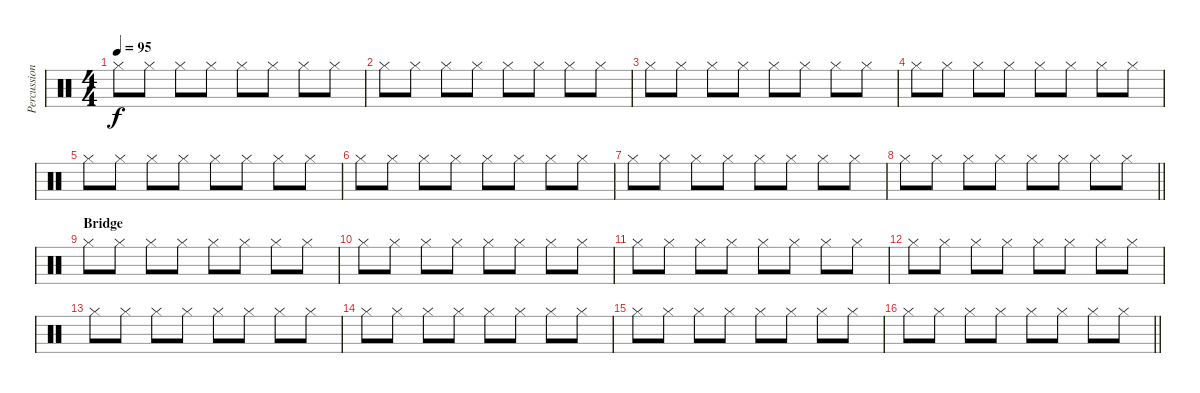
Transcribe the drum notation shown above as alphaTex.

\track ("Percussioni" "Percussion") {instrument percussion}
\staff {score}
\articulation defaults
\ts (4 4)
\tempo 95
\clef neutral
\ks c "Hi-Hat (closed)".8{dy f} "Hi-Hat (closed)".8 "Hi-Hat (closed)".8 "Hi-Hat (closed)".8 "Hi-Hat (closed)".8 "Hi-Hat (closed)".8 "Hi-Hat (closed)".8 "Hi-Hat (closed)".8
|
"Hi-Hat (closed)".8 "Hi-Hat (closed)".8 "Hi-Hat (closed)".8 "Hi-Hat (closed)".8 "Hi-Hat (closed)".8 "Hi-Hat (closed)".8 "Hi-Hat (closed)".8 "Hi-Hat (closed)".8 |
"Hi-Hat (closed)".8 "Hi-Hat (closed)".8 "Hi-Hat (closed)".8 "Hi-Hat (closed)".8 "Hi-Hat (closed)".8 "Hi-Hat (closed)".8 "Hi-Hat (closed)".8 "Hi-Hat (closed)".8 |
"Hi-Hat (closed)".8 "Hi-Hat (closed)".8 "Hi-Hat (closed)".8 "Hi-Hat (closed)".8 "Hi-Hat (closed)".8 "Hi-Hat (closed)".8 "Hi-Hat (closed)".8 "Hi-Hat (closed)".8 |
"Hi-Hat (closed)".8 "Hi-Hat (closed)".8 "Hi-Hat (closed)".8 "Hi-Hat (closed)".8 "Hi-Hat (closed)".8 "Hi-Hat (closed)".8 "Hi-Hat (closed)".8 "Hi-Hat (closed)".8 |
"Hi-Hat (closed)".8 "Hi-Hat (closed)".8 "Hi-Hat (closed)".8 "Hi-Hat (closed)".8 "Hi-Hat (closed)".8 "Hi-Hat (closed)".8 "Hi-Hat (closed)".8 "Hi-Hat (closed)".8 |
"Hi-Hat (closed)".8 "Hi-Hat (closed)".8 "Hi-Hat (closed)".8 "Hi-Hat (closed)".8 "Hi-Hat (closed)".8 "Hi-Hat (closed)".8 "Hi-Hat (closed)".8 "Hi-Hat (closed)".8 |
\barLineRight lightlight "Hi-Hat (closed)".8 "Hi-Hat (closed)".8 "Hi-Hat (closed)".8 "Hi-Hat (closed)".8 "Hi-Hat (closed)".8 "Hi-Hat (closed)".8 "Hi-Hat (closed)".8 "Hi-Hat (closed)".8
|
\section ("" "Bridge")
"Hi-Hat (closed)".8 "Hi-Hat (closed)".8 "Hi-Hat (closed)".8 "Hi-Hat (closed)".8 "Hi-Hat (closed)".8 "Hi-Hat (closed)".8 "Hi-Hat (closed)".8 "Hi-Hat (closed)".8 |
"Hi-Hat (closed)".8 "Hi-Hat (closed)".8 "Hi-Hat (closed)".8 "Hi-Hat (closed)".8 "Hi-Hat (closed)".8 "Hi-Hat (closed)".8 "Hi-Hat (closed)".8 "Hi-Hat (closed)".8 |
"Hi-Hat (closed)".8 "Hi-Hat (closed)".8 "Hi-Hat (closed)".8 "Hi-Hat (closed)".8 "Hi-Hat (closed)".8 "Hi-Hat (closed)".8 "Hi-Hat (closed)".8 "Hi-Hat (closed)".8 |
"Hi-Hat (closed)".8 "Hi-Hat (closed)".8 "Hi-Hat (closed)".8 "Hi-Hat (closed)".8 "Hi-Hat (closed)".8 "Hi-Hat (closed)".8 "Hi-Hat (closed)".8 "Hi-Hat (closed)".8 |
"Hi-Hat (closed)".8 "Hi-Hat (closed)".8 "Hi-Hat (closed)".8 "Hi-Hat (closed)".8 "Hi-Hat (closed)".8 "Hi-Hat (closed)".8 "Hi-Hat (closed)".8 "Hi-Hat (closed)".8 |
"Hi-Hat (closed)".8 "Hi-Hat (closed)".8 "Hi-Hat (closed)".8 "Hi-Hat (closed)".8 "Hi-Hat (closed)".8 "Hi-Hat (closed)".8 "Hi-Hat (closed)".8 "Hi-Hat (closed)".8 |
"Hi-Hat (closed)".8 "Hi-Hat (closed)".8 "Hi-Hat (closed)".8 "Hi-Hat (closed)".8 "Hi-Hat (closed)".8 "Hi-Hat (closed)".8 "Hi-Hat (closed)".8 "Hi-Hat (closed)".8 |
\barLineRight lightlight "Hi-Hat (closed)".8 "Hi-Hat (closed)".8 "Hi-Hat (closed)".8 "Hi-Hat (closed)".8 "Hi-Hat (closed)".8 "Hi-Hat (closed)".8 "Hi-Hat (closed)".8 "Hi-Hat (closed)".8
